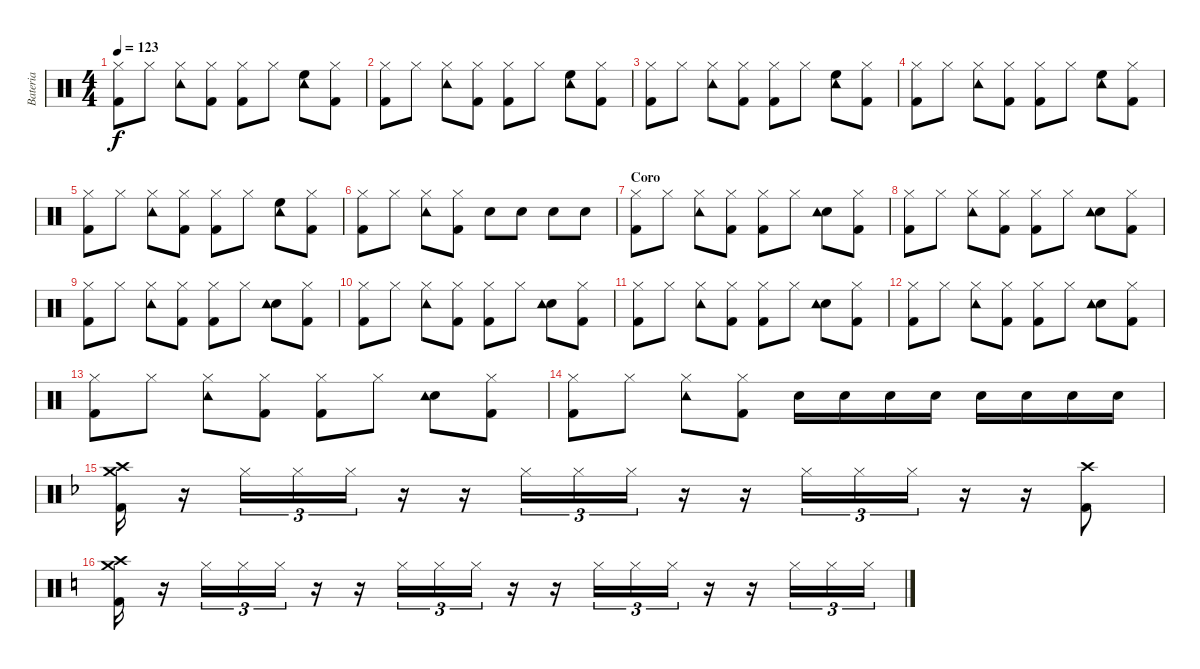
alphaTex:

\track ("Bateria" "Bateria") {instrument percussion}
\staff {score}
\articulation defaults
\ts (4 4)
\tempo 123
\clef neutral
\ks c
("Hi-Hat (closed)" "Kick (hit) 2").8{dy f} "Hi-Hat (closed)".8 ("Hi-Hat (closed)" "Tambourine (hit)").8 ("Hi-Hat (closed)" "Kick (hit) 2").8 ("Hi-Hat (closed)" "Kick (hit) 2").8 "Hi-Hat (closed)".8 ("High Floor Tom (hit)" "Tambourine (hit)").8 ("Hi-Hat (closed)" "Kick (hit) 2").8 |
("Hi-Hat (closed)" "Kick (hit) 2").8 "Hi-Hat (closed)".8 ("Hi-Hat (closed)" "Tambourine (hit)").8 ("Hi-Hat (closed)" "Kick (hit) 2").8 ("Hi-Hat (closed)" "Kick (hit) 2").8 "Hi-Hat (closed)".8 ("High Floor Tom (hit)" "Tambourine (hit)").8 ("Hi-Hat (closed)" "Kick (hit) 2").8 |
("Hi-Hat (closed)" "Kick (hit) 2").8 "Hi-Hat (closed)".8 ("Hi-Hat (closed)" "Tambourine (hit)").8 ("Hi-Hat (closed)" "Kick (hit) 2").8 ("Hi-Hat (closed)" "Kick (hit) 2").8 "Hi-Hat (closed)".8 ("High Floor Tom (hit)" "Tambourine (hit)").8 ("Hi-Hat (closed)" "Kick (hit) 2").8 |
("Hi-Hat (closed)" "Kick (hit) 2").8 "Hi-Hat (closed)".8 ("Hi-Hat (closed)" "Tambourine (hit)").8 ("Hi-Hat (closed)" "Kick (hit) 2").8 ("Hi-Hat (closed)" "Kick (hit) 2").8 "Hi-Hat (closed)".8 ("High Floor Tom (hit)" "Tambourine (hit)").8 ("Hi-Hat (closed)" "Kick (hit) 2").8 |
("Hi-Hat (closed)" "Kick (hit) 2").8 "Hi-Hat (closed)".8 ("Hi-Hat (closed)" "Tambourine (hit)").8 ("Hi-Hat (closed)" "Kick (hit) 2").8 ("Hi-Hat (closed)" "Kick (hit) 2").8 "Hi-Hat (closed)".8 ("High Floor Tom (hit)" "Tambourine (hit)").8 ("Hi-Hat (closed)" "Kick (hit) 2").8 |
("Hi-Hat (closed)" "Kick (hit) 2").8 "Hi-Hat (closed)".8 ("Hi-Hat (closed)" "Tambourine (hit)").8 ("Hi-Hat (closed)" "Kick (hit) 2").8 "Snare (hit) 2".8 "Snare (hit) 2".8 "Snare (hit) 2".8 "Snare (hit) 2".8 |
\section ("" "Coro")
("Hi-Hat (closed)" "Kick (hit) 2").8 "Hi-Hat (closed)".8 ("Hi-Hat (closed)" "Tambourine (hit)").8 ("Hi-Hat (closed)" "Kick (hit) 2").8 ("Hi-Hat (closed)" "Kick (hit) 2").8 "Hi-Hat (closed)".8 ("Snare (hit) 2" "Tambourine (hit)").8 ("Hi-Hat (closed)" "Kick (hit) 2").8 |
("Hi-Hat (closed)" "Kick (hit) 2").8 "Hi-Hat (closed)".8 ("Hi-Hat (closed)" "Tambourine (hit)").8 ("Hi-Hat (closed)" "Kick (hit) 2").8 ("Hi-Hat (closed)" "Kick (hit) 2").8 "Hi-Hat (closed)".8 ("Snare (hit) 2" "Tambourine (hit)").8 ("Hi-Hat (closed)" "Kick (hit) 2").8 |
("Hi-Hat (closed)" "Kick (hit) 2").8 "Hi-Hat (closed)".8 ("Hi-Hat (closed)" "Tambourine (hit)").8 ("Hi-Hat (closed)" "Kick (hit) 2").8 ("Hi-Hat (closed)" "Kick (hit) 2").8 "Hi-Hat (closed)".8 ("Snare (hit) 2" "Tambourine (hit)").8 ("Hi-Hat (closed)" "Kick (hit) 2").8 |
("Hi-Hat (closed)" "Kick (hit) 2").8 "Hi-Hat (closed)".8 ("Hi-Hat (closed)" "Tambourine (hit)").8 ("Hi-Hat (closed)" "Kick (hit) 2").8 ("Hi-Hat (closed)" "Kick (hit) 2").8 "Hi-Hat (closed)".8 ("Snare (hit) 2" "Tambourine (hit)").8 ("Hi-Hat (closed)" "Kick (hit) 2").8 |
("Hi-Hat (closed)" "Kick (hit) 2").8 "Hi-Hat (closed)".8 ("Hi-Hat (closed)" "Tambourine (hit)").8 ("Hi-Hat (closed)" "Kick (hit) 2").8 ("Hi-Hat (closed)" "Kick (hit) 2").8 "Hi-Hat (closed)".8 ("Snare (hit) 2" "Tambourine (hit)").8 ("Hi-Hat (closed)" "Kick (hit) 2").8 |
("Hi-Hat (closed)" "Kick (hit) 2").8 "Hi-Hat (closed)".8 ("Hi-Hat (closed)" "Tambourine (hit)").8 ("Hi-Hat (closed)" "Kick (hit) 2").8 ("Hi-Hat (closed)" "Kick (hit) 2").8 "Hi-Hat (closed)".8 ("Snare (hit) 2" "Tambourine (hit)").8 ("Hi-Hat (closed)" "Kick (hit) 2").8 |
("Hi-Hat (closed)" "Kick (hit) 2").8 "Hi-Hat (closed)".8 ("Hi-Hat (closed)" "Tambourine (hit)").8 ("Hi-Hat (closed)" "Kick (hit) 2").8 ("Hi-Hat (closed)" "Kick (hit) 2").8 "Hi-Hat (closed)".8 ("Snare (hit) 2" "Tambourine (hit)").8 ("Hi-Hat (closed)" "Kick (hit) 2").8 |
("Hi-Hat (closed)" "Kick (hit) 2").8 "Hi-Hat (closed)".8 ("Hi-Hat (closed)" "Tambourine (hit)").8 ("Hi-Hat (closed)" "Kick (hit) 2").8 "Snare (hit) 2".16 "Snare (hit) 2".16 "Snare (hit) 2".16 "Snare (hit) 2".16 "Snare (hit) 2".16 "Snare (hit) 2".16 "Snare (hit) 2".16 "Snare (hit) 2".16 |
\ks dminor
("Crash medium (hit)" "Crash high (hit)" "Kick (hit) 2").16 r.16 "Hi-Hat (closed)".16{tu (3 2)} "Hi-Hat (closed)".16{tu (3 2)} "Hi-Hat (closed)".16{tu (3 2)} r.16 r.16 "Hi-Hat (closed)".16{tu (3 2)} "Hi-Hat (closed)".16{tu (3 2)} "Hi-Hat (closed)".16{tu (3 2)} r.16 r.16 "Hi-Hat (closed)".16{tu (3 2)} "Hi-Hat (closed)".16{tu (3 2)} "Hi-Hat (closed)".16{tu (3 2)} r.16 r.16 ("Crash high (hit)" "Kick (hit) 2").8 |
\ks c
("Crash medium (hit)" "Crash high (hit)" "Kick (hit) 2").16 r.16 "Hi-Hat (closed)".16{tu (3 2)} "Hi-Hat (closed)".16{tu (3 2)} "Hi-Hat (closed)".16{tu (3 2)} r.16 r.16 "Hi-Hat (closed)".16{tu (3 2)} "Hi-Hat (closed)".16{tu (3 2)} "Hi-Hat (closed)".16{tu (3 2)} r.16 r.16 "Hi-Hat (closed)".16{tu (3 2)} "Hi-Hat (closed)".16{tu (3 2)} "Hi-Hat (closed)".16{tu (3 2)} r.16 r.16 "Hi-Hat (closed)".16{tu (3 2)} "Hi-Hat (closed)".16{tu (3 2)} "Hi-Hat (closed)".16{tu (3 2)}
